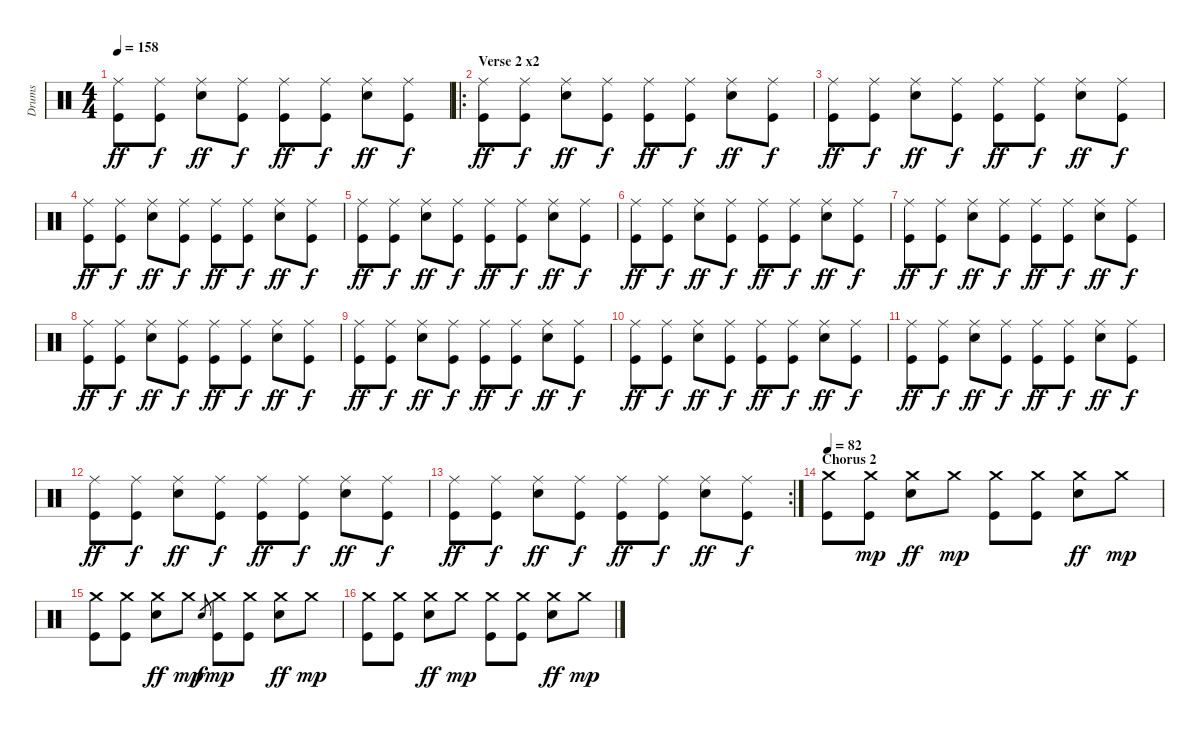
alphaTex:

\track ("Drums" "Drums") {instrument percussion}
\staff {score}
\articulation defaults
\ts (4 4)
\tempo 158
\clef neutral
\ks c
("Ride (middle)" "Kick (hit)").8{dy ff} ("Ride (middle)" "Kick (hit)").8{dy f} ("Ride (middle)" "Electric Snare (hit)").8{dy ff} ("Ride (middle)" "Kick (hit)").8{dy f} ("Ride (middle)" "Kick (hit)").8{dy ff} ("Ride (middle)" "Kick (hit)").8{dy f} ("Ride (middle)" "Electric Snare (hit)").8{dy ff} ("Ride (middle)" "Kick (hit)").8{dy f} |
\ro
\section ("" "Verse 2 x2")
("Ride (middle)" "Kick (hit)").8{dy ff} ("Ride (middle)" "Kick (hit)").8{dy f} ("Ride (middle)" "Electric Snare (hit)").8{dy ff} ("Ride (middle)" "Kick (hit)").8{dy f} ("Ride (middle)" "Kick (hit)").8{dy ff} ("Ride (middle)" "Kick (hit)").8{dy f} ("Ride (middle)" "Electric Snare (hit)").8{dy ff} ("Ride (middle)" "Kick (hit)").8{dy f} |
("Ride (middle)" "Kick (hit)").8{dy ff} ("Ride (middle)" "Kick (hit)").8{dy f} ("Ride (middle)" "Electric Snare (hit)").8{dy ff} ("Ride (middle)" "Kick (hit)").8{dy f} ("Ride (middle)" "Kick (hit)").8{dy ff} ("Ride (middle)" "Kick (hit)").8{dy f} ("Ride (middle)" "Electric Snare (hit)").8{dy ff} ("Ride (middle)" "Kick (hit)").8{dy f} |
("Ride (middle)" "Kick (hit)").8{dy ff} ("Ride (middle)" "Kick (hit)").8{dy f} ("Ride (middle)" "Electric Snare (hit)").8{dy ff} ("Ride (middle)" "Kick (hit)").8{dy f} ("Ride (middle)" "Kick (hit)").8{dy ff} ("Ride (middle)" "Kick (hit)").8{dy f} ("Ride (middle)" "Electric Snare (hit)").8{dy ff} ("Ride (middle)" "Kick (hit)").8{dy f} |
("Ride (middle)" "Kick (hit)").8{dy ff} ("Ride (middle)" "Kick (hit)").8{dy f} ("Ride (middle)" "Electric Snare (hit)").8{dy ff} ("Ride (middle)" "Kick (hit)").8{dy f} ("Ride (middle)" "Kick (hit)").8{dy ff} ("Ride (middle)" "Kick (hit)").8{dy f} ("Ride (middle)" "Electric Snare (hit)").8{dy ff} ("Ride (middle)" "Kick (hit)").8{dy f} |
("Ride (middle)" "Kick (hit)").8{dy ff} ("Ride (middle)" "Kick (hit)").8{dy f} ("Ride (middle)" "Electric Snare (hit)").8{dy ff} ("Ride (middle)" "Kick (hit)").8{dy f} ("Ride (middle)" "Kick (hit)").8{dy ff} ("Ride (middle)" "Kick (hit)").8{dy f} ("Ride (middle)" "Electric Snare (hit)").8{dy ff} ("Ride (middle)" "Kick (hit)").8{dy f} |
("Ride (middle)" "Kick (hit)").8{dy ff} ("Ride (middle)" "Kick (hit)").8{dy f} ("Ride (middle)" "Electric Snare (hit)").8{dy ff} ("Ride (middle)" "Kick (hit)").8{dy f} ("Ride (middle)" "Kick (hit)").8{dy ff} ("Ride (middle)" "Kick (hit)").8{dy f} ("Ride (middle)" "Electric Snare (hit)").8{dy ff} ("Ride (middle)" "Kick (hit)").8{dy f} |
("Ride (middle)" "Kick (hit)").8{dy ff} ("Ride (middle)" "Kick (hit)").8{dy f} ("Ride (middle)" "Electric Snare (hit)").8{dy ff} ("Ride (middle)" "Kick (hit)").8{dy f} ("Ride (middle)" "Kick (hit)").8{dy ff} ("Ride (middle)" "Kick (hit)").8{dy f} ("Ride (middle)" "Electric Snare (hit)").8{dy ff} ("Ride (middle)" "Kick (hit)").8{dy f} |
("Ride (middle)" "Kick (hit)").8{dy ff} ("Ride (middle)" "Kick (hit)").8{dy f} ("Ride (middle)" "Electric Snare (hit)").8{dy ff} ("Ride (middle)" "Kick (hit)").8{dy f} ("Ride (middle)" "Kick (hit)").8{dy ff} ("Ride (middle)" "Kick (hit)").8{dy f} ("Ride (middle)" "Electric Snare (hit)").8{dy ff} ("Ride (middle)" "Kick (hit)").8{dy f} |
("Ride (middle)" "Kick (hit)").8{dy ff} ("Ride (middle)" "Kick (hit)").8{dy f} ("Ride (middle)" "Electric Snare (hit)").8{dy ff} ("Ride (middle)" "Kick (hit)").8{dy f} ("Ride (middle)" "Kick (hit)").8{dy ff} ("Ride (middle)" "Kick (hit)").8{dy f} ("Ride (middle)" "Electric Snare (hit)").8{dy ff} ("Ride (middle)" "Kick (hit)").8{dy f} |
("Ride (middle)" "Kick (hit)").8{dy ff} ("Ride (middle)" "Kick (hit)").8{dy f} ("Ride (middle)" "Electric Snare (hit)").8{dy ff} ("Ride (middle)" "Kick (hit)").8{dy f} ("Ride (middle)" "Kick (hit)").8{dy ff} ("Ride (middle)" "Kick (hit)").8{dy f} ("Ride (middle)" "Electric Snare (hit)").8{dy ff} ("Ride (middle)" "Kick (hit)").8{dy f} |
("Ride (middle)" "Kick (hit)").8{dy ff} ("Ride (middle)" "Kick (hit)").8{dy f} ("Ride (middle)" "Electric Snare (hit)").8{dy ff} ("Ride (middle)" "Kick (hit)").8{dy f} ("Ride (middle)" "Kick (hit)").8{dy ff} ("Ride (middle)" "Kick (hit)").8{dy f} ("Ride (middle)" "Electric Snare (hit)").8{dy ff} ("Ride (middle)" "Kick (hit)").8{dy f} |
\rc 2
("Ride (middle)" "Kick (hit)").8{dy ff} ("Ride (middle)" "Kick (hit)").8{dy f} ("Ride (middle)" "Electric Snare (hit)").8{dy ff} ("Ride (middle)" "Kick (hit)").8{dy f} ("Ride (middle)" "Kick (hit)").8{dy ff} ("Ride (middle)" "Kick (hit)").8{dy f} ("Ride (middle)" "Electric Snare (hit)").8{dy ff} ("Ride (middle)" "Kick (hit)").8{dy f} |
\section ("" "Chorus 2")
\tempo 82
("Crash medium (hit)" "Kick (hit)").8 ("Crash medium (hit)" "Kick (hit)").8{dy mp} ("Crash medium (hit)" "Electric Snare (hit)").8{dy ff} "Crash medium (hit)".8{dy mp} ("Crash medium (hit)" "Kick (hit)").8 ("Crash medium (hit)" "Kick (hit)").8 ("Crash medium (hit)" "Electric Snare (hit)").8{dy ff} "Crash medium (hit)".8{dy mp} |
("Crash medium (hit)" "Kick (hit)").8 ("Crash medium (hit)" "Kick (hit)").8 ("Crash medium (hit)" "Electric Snare (hit)").8{dy ff} "Crash medium (hit)".8{dy mp} "Electric Snare (hit)".8{gr dy f} ("Crash medium (hit)" "Kick (hit)").8{dy mp} ("Crash medium (hit)" "Kick (hit)").8 ("Crash medium (hit)" "Electric Snare (hit)").8{dy ff} "Crash medium (hit)".8{dy mp} |
("Crash medium (hit)" "Kick (hit)").8 ("Crash medium (hit)" "Kick (hit)").8 ("Crash medium (hit)" "Electric Snare (hit)").8{dy ff} "Crash medium (hit)".8{dy mp} ("Crash medium (hit)" "Kick (hit)").8 ("Crash medium (hit)" "Kick (hit)").8 ("Crash medium (hit)" "Electric Snare (hit)").8{dy ff} "Crash medium (hit)".8{dy mp}
